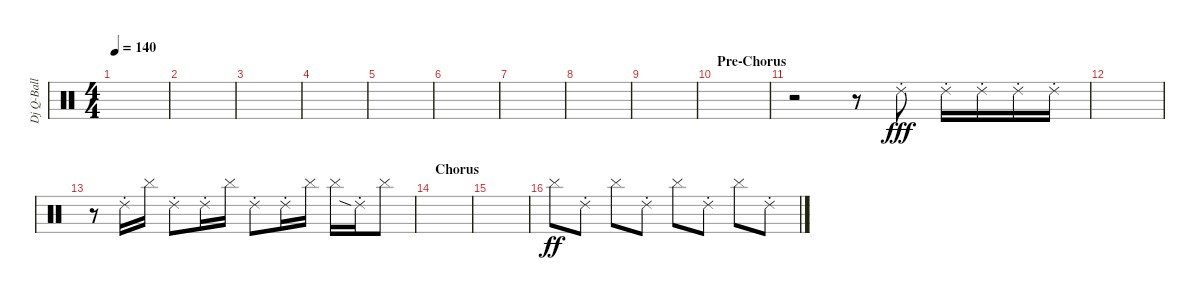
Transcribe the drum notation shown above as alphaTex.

\track ("Dj Q-Ball" "Dj Q-Ball") {instrument percussion}
\staff {score}
\articulation defaults
\ts (4 4)
\tempo 140
\clef neutral
\ks c
|
|
|
|
|
|
|
|
|
\section ("" "Pre-Chorus")
|
r.2 r.8 "Ride (choke) 2".8{dy fff} "Ride (choke) 2".16 "Ride (choke) 2".16 "Ride (choke) 2".16 "Ride (choke) 2".16 |
|
r.8 "Ride (choke) 2".16 "Cymbal (hit)".16 "Ride (choke) 2".8 "Ride (choke) 2".16 "Cymbal (hit)".16 "Ride (choke) 2".8 "Ride (choke) 2".16 "Cymbal (hit)".16 "Cymbal (hit)".16 "Ride (choke) 2"{sia}.16 "Cymbal (hit)".8 |
\section ("" "Chorus")
|
|
"Cymbal (hit)".8{dy ff} "Ride (choke) 2".8 "Cymbal (hit)".8 "Ride (choke) 2".8 "Cymbal (hit)".8 "Ride (choke) 2".8 "Cymbal (hit)".8 "Ride (choke) 2".8
